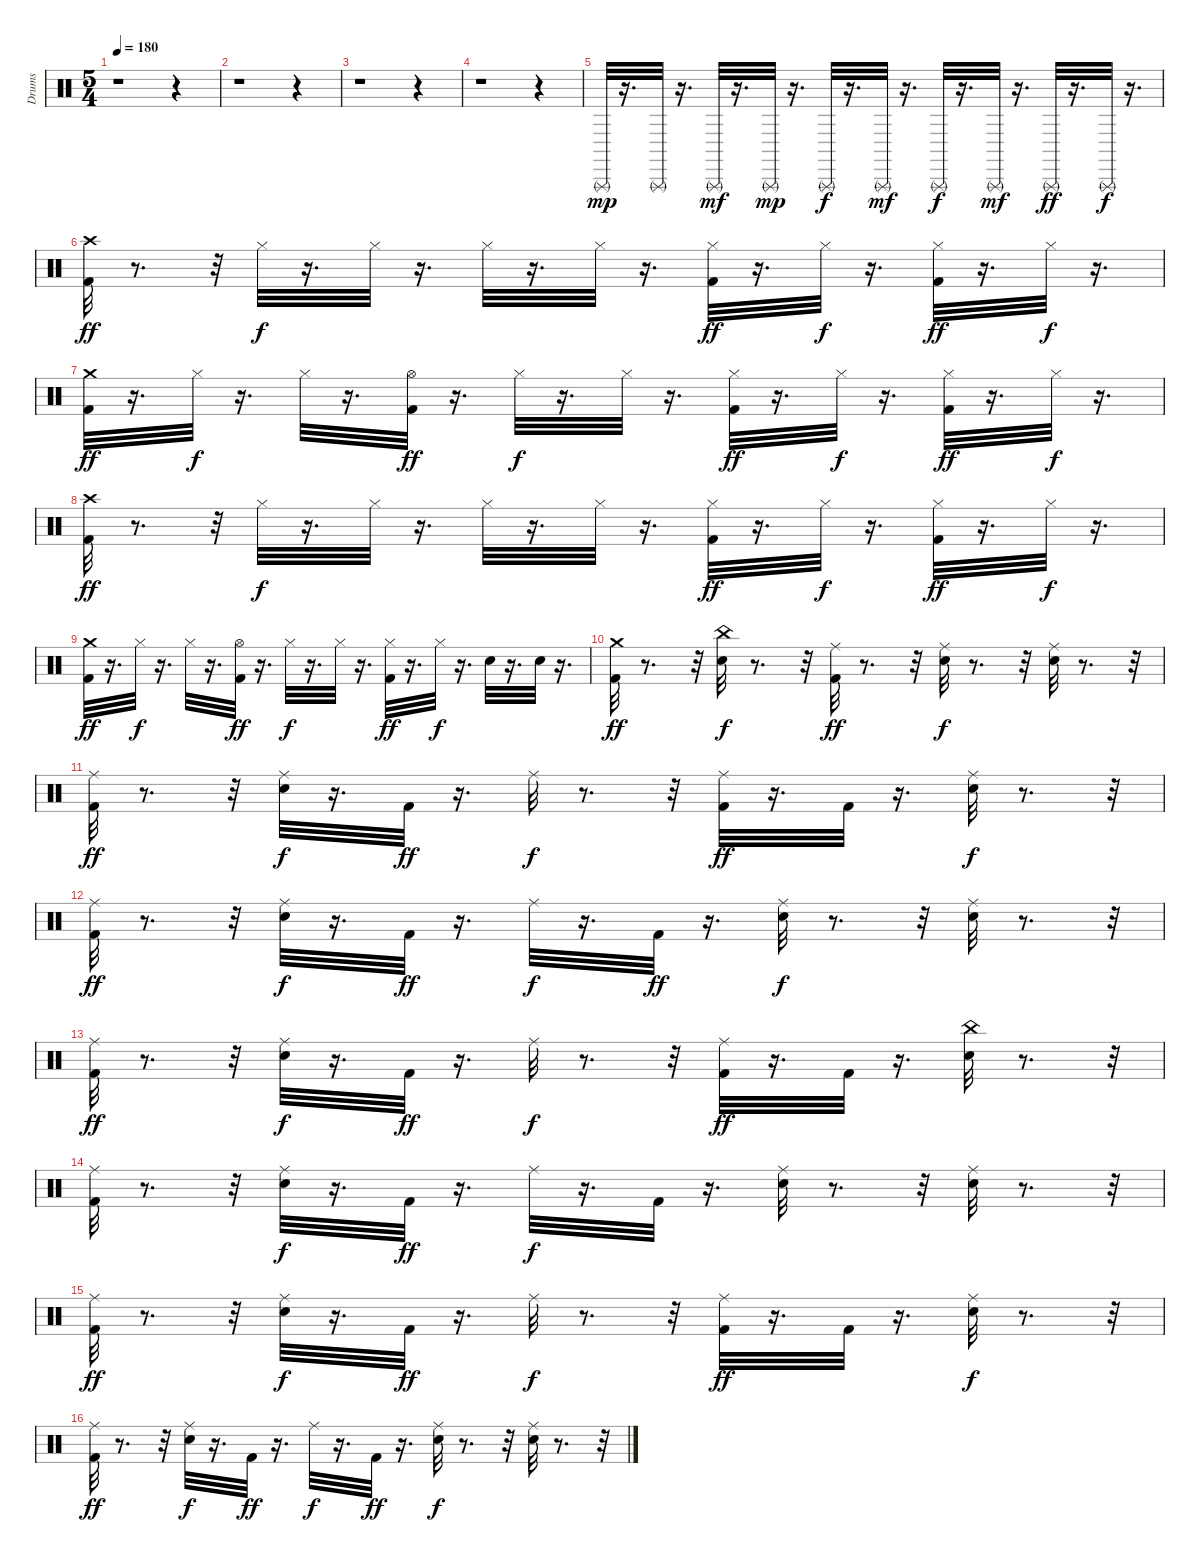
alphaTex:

\track ("Drums" "Drums") {instrument percussion}
\staff {score}
\articulation defaults
\ts (5 4)
\tempo 180
\clef neutral
\ks c
r.1{dy mp} r.4 |
r.1 r.4 |
r.1 r.4 |
r.1 r.4 |
"Triangle (rnute)".32 r.16{d} "Triangle (rnute)".32 r.16{d} "Triangle (rnute)".32{dy mf} r.16{d} "Triangle (rnute)".32{dy mp} r.16{d} "Triangle (rnute)".32{dy f} r.16{d} "Triangle (rnute)".32{dy mf} r.16{d} "Triangle (rnute)".32{dy f} r.16{d} "Triangle (rnute)".32{dy mf} r.16{d} "Triangle (rnute)".32{dy ff} r.16{d} "Triangle (rnute)".32{dy f} r.16{d} |
("Kick (hit) 2" "Crash high (hit)").32{dy ff} r.8{d} r.32 "Hi-Hat (closed)".32{dy f} r.16{d} "Hi-Hat (closed)".32 r.16{d} "Hi-Hat (closed)".32 r.16{d} "Hi-Hat (closed)".32 r.16{d} ("Hi-Hat (closed)" "Kick (hit) 2").32{dy ff} r.16{d} "Hi-Hat (closed)".32{dy f} r.16{d} ("Hi-Hat (closed)" "Kick (hit) 2").32{dy ff} r.16{d} "Hi-Hat (closed)".32{dy f} r.16{d} |
("Crash medium (hit)" "Kick (hit) 2").32{dy ff} r.16{d} "Hi-Hat (closed)".32{dy f} r.16{d} "Hi-Hat (closed)".32 r.16{d} ("Hi-Hat (open)" "Kick (hit) 2").32{dy ff} r.16{d} "Hi-Hat (closed)".32{dy f} r.16{d} "Hi-Hat (closed)".32 r.16{d} ("Kick (hit) 2" "Hi-Hat (closed)").32{dy ff} r.16{d} "Hi-Hat (closed)".32{dy f} r.16{d} ("Hi-Hat (closed)" "Kick (hit) 2").32{dy ff} r.16{d} "Hi-Hat (closed)".32{dy f} r.16{d} |
("Kick (hit) 2" "Crash high (hit)").32{dy ff} r.8{d} r.32 "Hi-Hat (closed)".32{dy f} r.16{d} "Hi-Hat (closed)".32 r.16{d} "Hi-Hat (closed)".32 r.16{d} "Hi-Hat (closed)".32 r.16{d} ("Hi-Hat (closed)" "Kick (hit) 2").32{dy ff} r.16{d} "Hi-Hat (closed)".32{dy f} r.16{d} ("Hi-Hat (closed)" "Kick (hit) 2").32{dy ff} r.16{d} "Hi-Hat (closed)".32{dy f} r.16{d} |
("Crash medium (hit)" "Kick (hit) 2").32{dy ff} r.16{d} "Hi-Hat (closed)".32{dy f} r.16{d} "Hi-Hat (closed)".32 r.16{d} ("Hi-Hat (open)" "Kick (hit) 2").32{dy ff} r.16{d} "Hi-Hat (closed)".32{dy f} r.16{d} "Hi-Hat (closed)".32 r.16{d} ("Kick (hit) 2" "Hi-Hat (closed)").32{dy ff} r.16{d} "Hi-Hat (closed)".32{dy f} r.16{d} "Snare (hit) 2".32 r.16{d} "Snare (hit) 2".32 r.16{d} |
("Crash medium (hit)" "Kick (hit) 2").32{dy ff} r.8{d} r.32 ("China (hit)" "Snare (hit) 2").32{dy f} r.8{d} r.32 ("Ride (middle)" "Kick (hit) 2").32{dy ff} r.8{d} r.32 ("Ride (middle)" "Snare (hit) 2").32{dy f} r.8{d} r.32 ("Ride (middle)" "Snare (hit) 2").32 r.8{d} r.32 |
("Ride (middle)" "Kick (hit) 2").32{dy ff} r.8{d} r.32 ("Ride (middle)" "Snare (hit) 2").32{dy f} r.16{d} "Kick (hit) 2".32{dy ff} r.16{d} "Ride (middle)".32{dy f} r.8{d} r.32 ("Kick (hit) 2" "Ride (middle)").32{dy ff} r.16{d} "Kick (hit) 2".32 r.16{d} ("Ride (middle)" "Snare (hit) 2").32{dy f} r.8{d} r.32 |
("Ride (middle)" "Kick (hit) 2").32{dy ff} r.8{d} r.32 ("Ride (middle)" "Snare (hit) 2").32{dy f} r.16{d} "Kick (hit) 2".32{dy ff} r.16{d} "Ride (middle)".32{dy f} r.16{d} "Kick (hit) 2".32{dy ff} r.16{d} ("Ride (middle)" "Snare (hit) 2").32{dy f} r.8{d} r.32 ("Ride (middle)" "Snare (hit) 2").32 r.8{d} r.32 |
("Ride (middle)" "Kick (hit) 2").32{dy ff} r.8{d} r.32 ("Ride (middle)" "Snare (hit) 2").32{dy f} r.16{d} "Kick (hit) 2".32{dy ff} r.16{d} "Ride (middle)".32{dy f} r.8{d} r.32 ("Kick (hit) 2" "Ride (middle)").32{dy ff} r.16{d} "Kick (hit) 2".32 r.16{d} ("China (hit)" "Snare (hit) 2").32 r.8{d} r.32 |
("Ride (middle)" "Kick (hit) 2").32 r.8{d} r.32 ("Ride (middle)" "Snare (hit) 2").32{dy f} r.16{d} "Kick (hit) 2".32{dy ff} r.16{d} "Ride (middle)".32{dy f} r.16{d} "Kick (hit) 2".32 r.16{d} ("Ride (middle)" "Snare (hit) 2").32 r.8{d} r.32 ("Ride (middle)" "Snare (hit) 2").32 r.8{d} r.32 |
("Ride (middle)" "Kick (hit) 2").32{dy ff} r.8{d} r.32 ("Ride (middle)" "Snare (hit) 2").32{dy f} r.16{d} "Kick (hit) 2".32{dy ff} r.16{d} "Ride (middle)".32{dy f} r.8{d} r.32 ("Kick (hit) 2" "Ride (middle)").32{dy ff} r.16{d} "Kick (hit) 2".32 r.16{d} ("Ride (middle)" "Snare (hit) 2").32{dy f} r.8{d} r.32 |
("Ride (middle)" "Kick (hit) 2").32{dy ff} r.8{d} r.32 ("Ride (middle)" "Snare (hit) 2").32{dy f} r.16{d} "Kick (hit) 2".32{dy ff} r.16{d} "Ride (middle)".32{dy f} r.16{d} "Kick (hit) 2".32{dy ff} r.16{d} ("Ride (middle)" "Snare (hit) 2").32{dy f} r.8{d} r.32 ("Ride (middle)" "Snare (hit) 2").32 r.8{d} r.32
